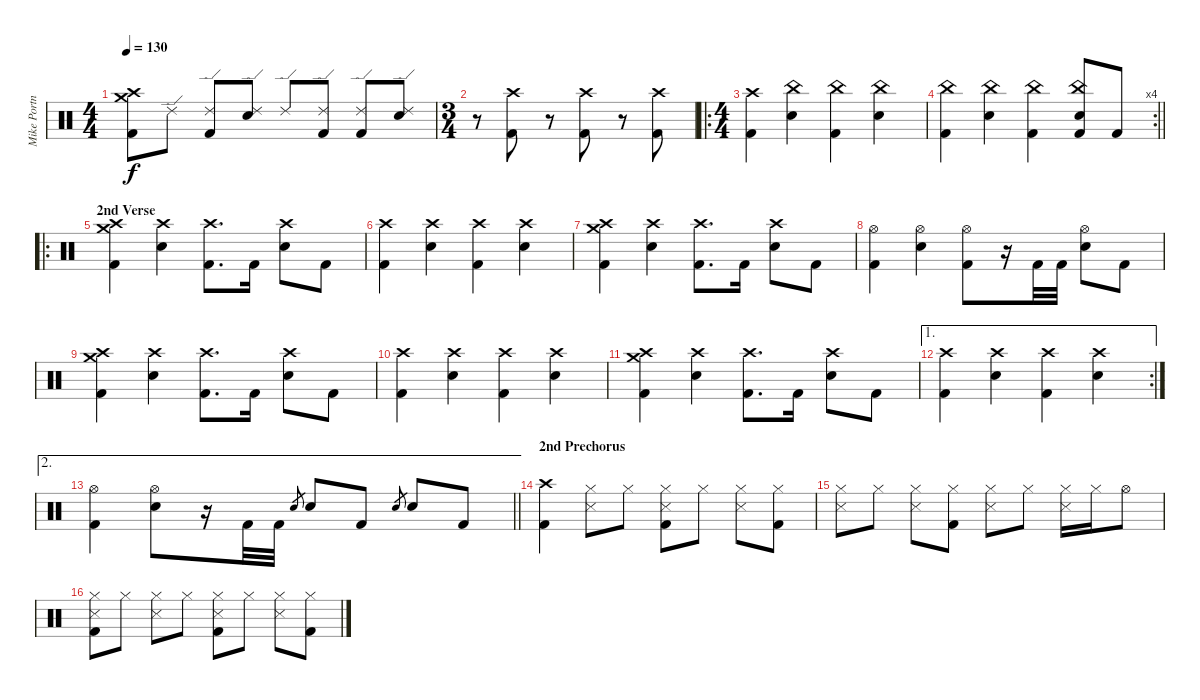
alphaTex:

\track ("Mike Portnoy" "Mike Portn") {instrument percussion}
\staff {score}
\articulation defaults
\ts (4 4)
\tempo 130
\clef neutral
\ks c
("Crash high (hit)" "Crash medium (hit)" "Kick (hit) 2").8{dy f} "Ride (edge) 2".8 ("Ride (edge) 2" "Kick (hit) 2").8 ("Ride (edge) 2" "Snare (hit) 2").8 "Ride (edge) 2".8 ("Ride (edge) 2" "Kick (hit) 2").8 ("Ride (edge) 2" "Kick (hit) 2").8 ("Ride (edge) 2" "Snare (hit) 2").8 |
\ts (3 4)
r.8{volume 0} ("Crash high (hit)" "Kick (hit) 2").8{volume 16} r.8{volume 0} ("Crash high (hit)" "Kick (hit) 2").8{volume 16} r.8{volume 0} ("Crash high (hit)" "Kick (hit) 2").8{volume 16} |
\ro
\ts (4 4)
("Crash high (hit)" "Kick (hit) 2").4 ("China (hit)" "Electric Snare (hit)").4 ("China (hit)" "Kick (hit) 2").4 ("China (hit)" "Electric Snare (hit)").4 |
\rc 4
\barLineRight lightlight
("China (hit)" "Kick (hit) 2").4 ("China (hit)" "Electric Snare (hit)").4 ("China (hit)" "Kick (hit) 2").4 ("China (hit)" "Electric Snare (hit)" "Kick (hit) 2").8 "Kick (hit) 2".8 |
\ro
\section ("" "2nd Verse")
("Crash high (hit)" "Crash medium (hit)" "Kick (hit) 2").4 ("Crash high (hit)" "Electric Snare (hit)").4 ("Crash high (hit)" "Kick (hit) 2").8{d} "Kick (hit) 2".16 ("Crash high (hit)" "Electric Snare (hit)").8 "Kick (hit) 2".8 |
("Crash high (hit)" "Kick (hit) 2").4 ("Crash high (hit)" "Electric Snare (hit)").4 ("Crash high (hit)" "Kick (hit) 2").4 ("Crash high (hit)" "Electric Snare (hit)").4 |
("Crash high (hit)" "Crash medium (hit)" "Kick (hit) 2").4 ("Crash high (hit)" "Electric Snare (hit)").4 ("Crash high (hit)" "Kick (hit) 2").8{d} "Kick (hit) 2".16 ("Crash high (hit)" "Electric Snare (hit)").8 "Kick (hit) 2".8 |
("Hi-Hat (open)" "Kick (hit) 2").4 ("Hi-Hat (open)" "Electric Snare (hit)").4 ("Hi-Hat (open)" "Kick (hit) 2").8 r.16 "Kick (hit) 2".32 "Kick (hit) 2".32 ("Hi-Hat (open)" "Electric Snare (hit)").8 "Kick (hit) 2".8 |
("Crash high (hit)" "Crash medium (hit)" "Kick (hit) 2").4 ("Crash high (hit)" "Electric Snare (hit)").4 ("Crash high (hit)" "Kick (hit) 2").8{d} "Kick (hit) 2".16 ("Crash high (hit)" "Electric Snare (hit)").8 "Kick (hit) 2".8 |
("Crash high (hit)" "Kick (hit) 2").4 ("Crash high (hit)" "Electric Snare (hit)").4 ("Crash high (hit)" "Kick (hit) 2").4 ("Crash high (hit)" "Electric Snare (hit)").4 |
("Crash high (hit)" "Crash medium (hit)" "Kick (hit) 2").4 ("Crash high (hit)" "Electric Snare (hit)").4 ("Crash high (hit)" "Kick (hit) 2").8{d} "Kick (hit) 2".16 ("Crash high (hit)" "Electric Snare (hit)").8 "Kick (hit) 2".8 |
\ae 1
\rc 2
("Crash high (hit)" "Kick (hit) 2").4 ("Crash high (hit)" "Electric Snare (hit)").4 ("Crash high (hit)" "Kick (hit) 2").4 ("Crash high (hit)" "Electric Snare (hit)").4 |
\ae 2
\barLineRight lightlight
("Hi-Hat (open)" "Kick (hit) 2").4 ("Hi-Hat (open)" "Electric Snare (hit)").8 r.16 "Kick (hit) 2".32 "Kick (hit) 2".32 "Electric Snare (hit)".8{gr} "Electric Snare (hit)".8 "Kick (hit) 2".8 "Electric Snare (hit)".8{gr} "Electric Snare (hit)".8 "Kick (hit) 2".8 |
\section ("" "2nd Prechorus")
("Crash high (hit)" "Kick (hit) 2").4 ("Hi-Hat (closed)" "Snare (side stick) 3").8 "Hi-Hat (closed)".8 ("Hi-Hat (closed)" "Snare (side stick) 3" "Kick (hit) 2").8 "Hi-Hat (closed)".8 ("Hi-Hat (closed)" "Snare (side stick) 3").8 ("Hi-Hat (closed)" "Kick (hit) 2").8 |
("Hi-Hat (closed)" "Snare (side stick) 3").8 "Hi-Hat (closed)".8 ("Hi-Hat (closed)" "Snare (side stick) 3").8 ("Hi-Hat (closed)" "Kick (hit) 2").8 ("Hi-Hat (closed)" "Snare (side stick) 3").8 "Hi-Hat (closed)".8 ("Hi-Hat (closed)" "Snare (side stick) 3").16 "Hi-Hat (closed)".16 "Hi-Hat (open)".8 |
("Hi-Hat (closed)" "Snare (side stick) 3" "Kick (hit) 2").8 "Hi-Hat (closed)".8 ("Hi-Hat (closed)" "Snare (side stick) 3").8 "Hi-Hat (closed)".8 ("Hi-Hat (closed)" "Snare (side stick) 3" "Kick (hit) 2").8 "Hi-Hat (closed)".8 ("Hi-Hat (closed)" "Snare (side stick) 3").8 ("Hi-Hat (closed)" "Kick (hit) 2").8
